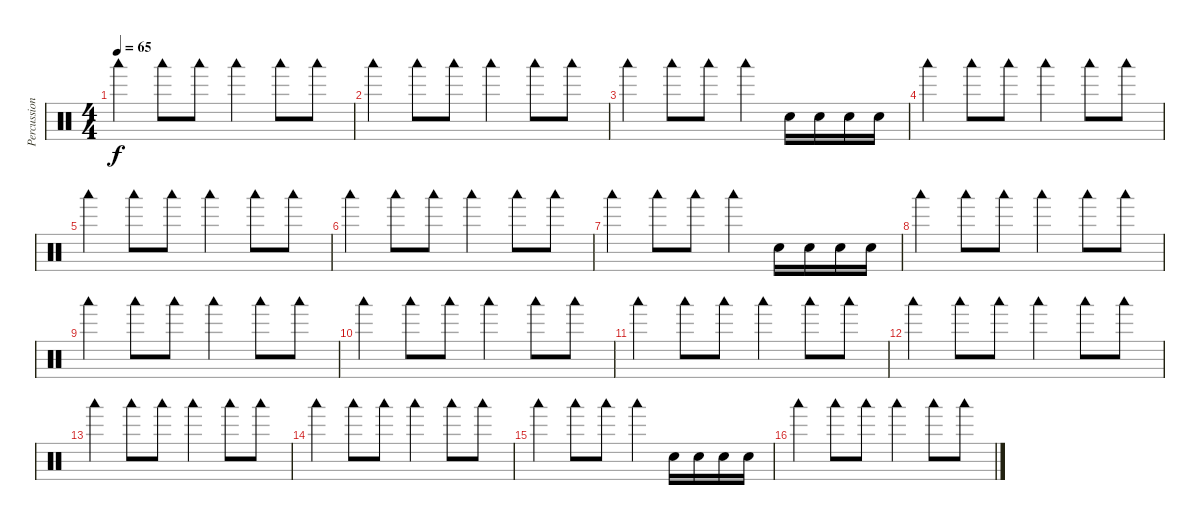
\track ("Percussions" "Percussion") {instrument percussion}
\staff {score}
\articulation defaults
\ts (4 4)
\tempo 65
\clef neutral
\ks c "Woodblock low (hit)".4{dy f} "Woodblock low (hit)".8 "Woodblock low (hit)".8 "Woodblock low (hit)".4 "Woodblock low (hit)".8 "Woodblock low (hit)".8
|
"Woodblock low (hit)".4 "Woodblock low (hit)".8 "Woodblock low (hit)".8 "Woodblock low (hit)".4 "Woodblock low (hit)".8 "Woodblock low (hit)".8 |
"Woodblock low (hit)".4 "Woodblock low (hit)".8 "Woodblock low (hit)".8 "Woodblock low (hit)".4 "Electric Snare (hit)".16 "Electric Snare (hit)".16 "Electric Snare (hit)".16 "Electric Snare (hit)".16 |
"Woodblock low (hit)".4 "Woodblock low (hit)".8 "Woodblock low (hit)".8 "Woodblock low (hit)".4 "Woodblock low (hit)".8 "Woodblock low (hit)".8 |
"Woodblock low (hit)".4 "Woodblock low (hit)".8 "Woodblock low (hit)".8 "Woodblock low (hit)".4 "Woodblock low (hit)".8 "Woodblock low (hit)".8 |
"Woodblock low (hit)".4 "Woodblock low (hit)".8 "Woodblock low (hit)".8 "Woodblock low (hit)".4 "Woodblock low (hit)".8 "Woodblock low (hit)".8 |
"Woodblock low (hit)".4 "Woodblock low (hit)".8 "Woodblock low (hit)".8 "Woodblock low (hit)".4 "Electric Snare (hit)".16 "Electric Snare (hit)".16 "Electric Snare (hit)".16 "Electric Snare (hit)".16 |
"Woodblock low (hit)".4 "Woodblock low (hit)".8 "Woodblock low (hit)".8 "Woodblock low (hit)".4 "Woodblock low (hit)".8 "Woodblock low (hit)".8 |
"Woodblock low (hit)".4 "Woodblock low (hit)".8 "Woodblock low (hit)".8 "Woodblock low (hit)".4 "Woodblock low (hit)".8 "Woodblock low (hit)".8 |
"Woodblock low (hit)".4 "Woodblock low (hit)".8 "Woodblock low (hit)".8 "Woodblock low (hit)".4 "Woodblock low (hit)".8 "Woodblock low (hit)".8 |
"Woodblock low (hit)".4 "Woodblock low (hit)".8 "Woodblock low (hit)".8 "Woodblock low (hit)".4 "Woodblock low (hit)".8 "Woodblock low (hit)".8 |
"Woodblock low (hit)".4 "Woodblock low (hit)".8 "Woodblock low (hit)".8 "Woodblock low (hit)".4 "Woodblock low (hit)".8 "Woodblock low (hit)".8 |
"Woodblock low (hit)".4 "Woodblock low (hit)".8 "Woodblock low (hit)".8 "Woodblock low (hit)".4 "Woodblock low (hit)".8 "Woodblock low (hit)".8 |
"Woodblock low (hit)".4 "Woodblock low (hit)".8 "Woodblock low (hit)".8 "Woodblock low (hit)".4 "Woodblock low (hit)".8 "Woodblock low (hit)".8 |
"Woodblock low (hit)".4 "Woodblock low (hit)".8 "Woodblock low (hit)".8 "Woodblock low (hit)".4 "Electric Snare (hit)".16 "Electric Snare (hit)".16 "Electric Snare (hit)".16 "Electric Snare (hit)".16 |
"Woodblock low (hit)".4 "Woodblock low (hit)".8 "Woodblock low (hit)".8 "Woodblock low (hit)".4 "Woodblock low (hit)".8 "Woodblock low (hit)".8
